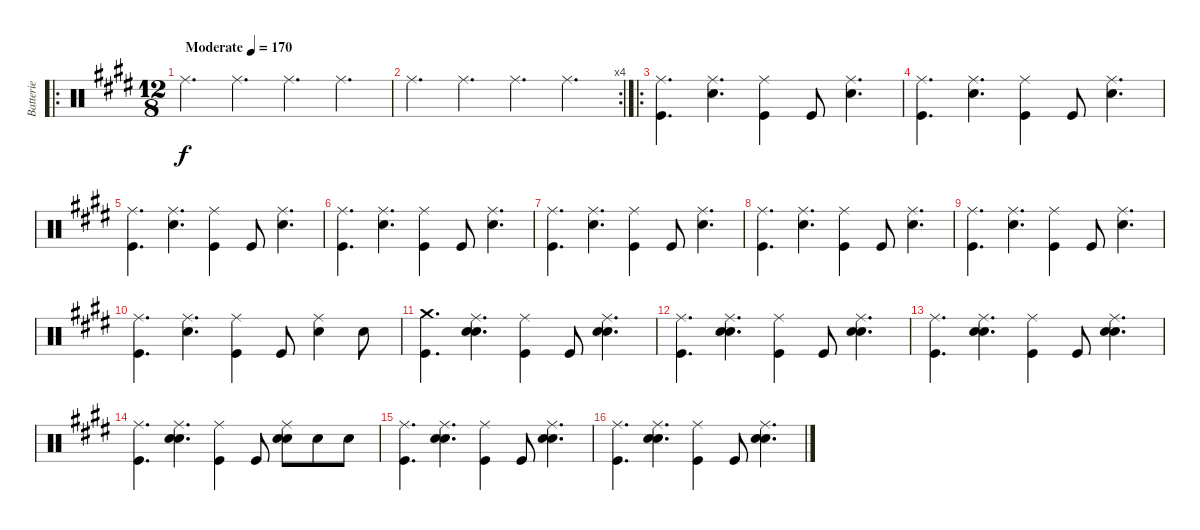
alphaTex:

\track ("Batterie" "Batterie") {instrument percussion}
\staff {score}
\articulation defaults
\ro
\ts (12 8)
\tempo (170 "Moderate")
\clef neutral
\ks e "Ride (middle)".4{d dy f} "Ride (middle)".4{d} "Ride (middle)".4{d} "Ride (middle)".4{d}
|
\rc 4 "Ride (middle)".4{d} "Ride (middle)".4{d} "Ride (middle)".4{d} "Ride (middle)".4{d}
|
\ro
("Kick (hit)" "Ride (middle)").4{d} ("Snare (hit) 2" "Ride (middle)").4{d} ("Kick (hit)" "Ride (middle)").4 "Kick (hit)".8 ("Snare (hit) 2" "Ride (middle)").4{d} |
("Kick (hit)" "Ride (middle)").4{d} ("Snare (hit) 2" "Ride (middle)").4{d} ("Kick (hit)" "Ride (middle)").4 "Kick (hit)".8 ("Snare (hit) 2" "Ride (middle)").4{d} |
("Kick (hit)" "Ride (middle)").4{d} ("Snare (hit) 2" "Ride (middle)").4{d} ("Kick (hit)" "Ride (middle)").4 "Kick (hit)".8 ("Snare (hit) 2" "Ride (middle)").4{d} |
("Kick (hit)" "Ride (middle)").4{d} ("Snare (hit) 2" "Ride (middle)").4{d} ("Kick (hit)" "Ride (middle)").4 "Kick (hit)".8 ("Snare (hit) 2" "Ride (middle)").4{d} |
("Kick (hit)" "Ride (middle)").4{d} ("Snare (hit) 2" "Ride (middle)").4{d} ("Kick (hit)" "Ride (middle)").4 "Kick (hit)".8 ("Snare (hit) 2" "Ride (middle)").4{d} |
("Kick (hit)" "Ride (middle)").4{d} ("Snare (hit) 2" "Ride (middle)").4{d} ("Kick (hit)" "Ride (middle)").4 "Kick (hit)".8 ("Snare (hit) 2" "Ride (middle)").4{d} |
("Kick (hit)" "Ride (middle)").4{d} ("Snare (hit) 2" "Ride (middle)").4{d} ("Kick (hit)" "Ride (middle)").4 "Kick (hit)".8 ("Snare (hit) 2" "Ride (middle)").4{d} |
("Kick (hit)" "Ride (middle)").4{d} ("Snare (hit) 2" "Ride (middle)").4{d} ("Kick (hit)" "Ride (middle)").4 "Kick (hit)".8 ("Snare (hit) 2" "Ride (middle)").4 "Snare (hit) 2".8 |
("Kick (hit)" "Crash medium (hit)").4{d} ("Snare (hit) 2" "Ride (middle)" "Hand Clap (hit)").4{d} ("Kick (hit)" "Ride (middle)").4 "Kick (hit)".8 ("Snare (hit) 2" "Ride (middle)" "Hand Clap (hit)").4{d} |
("Kick (hit)" "Ride (middle)").4{d} ("Snare (hit) 2" "Ride (middle)" "Hand Clap (hit)").4{d} ("Kick (hit)" "Ride (middle)").4 "Kick (hit)".8 ("Snare (hit) 2" "Ride (middle)" "Hand Clap (hit)").4{d} |
("Kick (hit)" "Ride (middle)").4{d} ("Snare (hit) 2" "Ride (middle)" "Hand Clap (hit)").4{d} ("Kick (hit)" "Ride (middle)").4 "Kick (hit)".8 ("Snare (hit) 2" "Ride (middle)" "Hand Clap (hit)").4{d} |
("Kick (hit)" "Ride (middle)").4{d} ("Snare (hit) 2" "Ride (middle)" "Hand Clap (hit)").4{d} ("Kick (hit)" "Ride (middle)").4 "Kick (hit)".8 ("Snare (hit) 2" "Ride (middle)" "Hand Clap (hit)").8 "Snare (hit) 2".8 "Snare (hit) 2".8 |
("Kick (hit)" "Ride (middle)").4{d} ("Snare (hit) 2" "Ride (middle)" "Hand Clap (hit)").4{d} ("Kick (hit)" "Ride (middle)").4 "Kick (hit)".8 ("Snare (hit) 2" "Ride (middle)" "Hand Clap (hit)").4{d} |
("Kick (hit)" "Ride (middle)").4{d} ("Snare (hit) 2" "Ride (middle)" "Hand Clap (hit)").4{d} ("Kick (hit)" "Ride (middle)").4 "Kick (hit)".8 ("Snare (hit) 2" "Ride (middle)" "Hand Clap (hit)").4{d}
